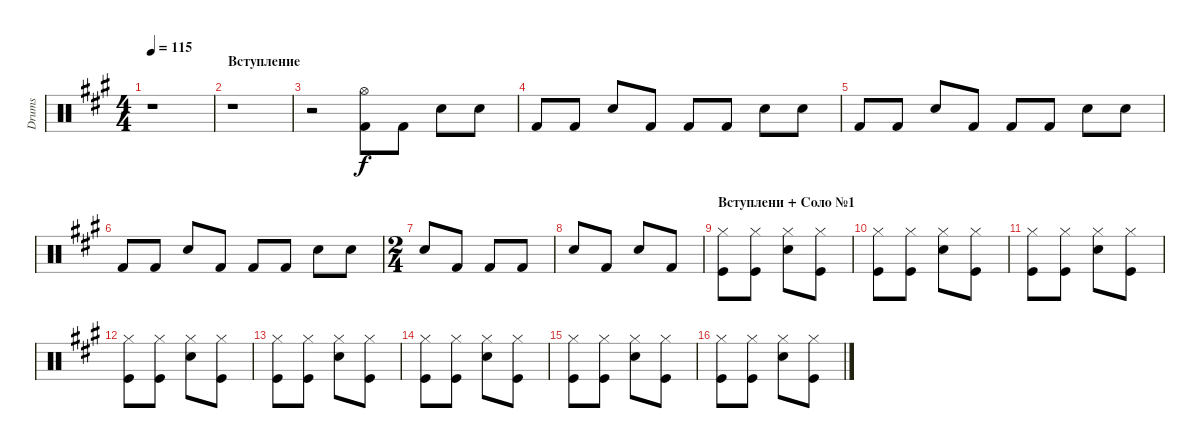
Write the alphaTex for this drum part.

\track ("Drums" "Drums") {instrument percussion}
\staff {score}
\articulation defaults
\ts (4 4)
\tempo 115
\clef neutral
\ks f#minor
r.1{dy f} |
\section ("" "Вступление")
r.1 |
r.2 ("Hi-Hat (open)" "Kick (hit) 2").8 "Kick (hit) 2".8 "Electric Snare (hit)".8 "Electric Snare (hit)".8 |
"Kick (hit) 2".8 "Kick (hit) 2".8 "Electric Snare (hit)".8 "Kick (hit) 2".8 "Kick (hit) 2".8 "Kick (hit) 2".8 "Electric Snare (hit)".8 "Electric Snare (hit)".8 |
"Kick (hit) 2".8 "Kick (hit) 2".8 "Electric Snare (hit)".8 "Kick (hit) 2".8 "Kick (hit) 2".8 "Kick (hit) 2".8 "Electric Snare (hit)".8 "Electric Snare (hit)".8 |
"Kick (hit) 2".8 "Kick (hit) 2".8 "Electric Snare (hit)".8 "Kick (hit) 2".8 "Kick (hit) 2".8 "Kick (hit) 2".8 "Electric Snare (hit)".8 "Electric Snare (hit)".8 |
\ts (2 4)
"Electric Snare (hit)".8 "Kick (hit) 2".8 "Kick (hit) 2".8 "Kick (hit) 2".8 |
"Electric Snare (hit)".8 "Kick (hit) 2".8 "Electric Snare (hit)".8 "Kick (hit) 2".8 |
\section ("" "Вступлени + Соло №1")
("Hi-Hat (closed)" "Kick (hit)").8 ("Hi-Hat (closed)" "Kick (hit)").8 ("Hi-Hat (closed)" "Electric Snare (hit)").8 ("Hi-Hat (closed)" "Kick (hit)").8 |
("Hi-Hat (closed)" "Kick (hit)").8 ("Hi-Hat (closed)" "Kick (hit)").8 ("Hi-Hat (closed)" "Electric Snare (hit)").8 ("Hi-Hat (closed)" "Kick (hit)").8 |
("Hi-Hat (closed)" "Kick (hit)").8 ("Hi-Hat (closed)" "Kick (hit)").8 ("Hi-Hat (closed)" "Electric Snare (hit)").8 ("Hi-Hat (closed)" "Kick (hit)").8 |
("Hi-Hat (closed)" "Kick (hit)").8 ("Hi-Hat (closed)" "Kick (hit)").8 ("Hi-Hat (closed)" "Electric Snare (hit)").8 ("Hi-Hat (closed)" "Kick (hit)").8 |
("Hi-Hat (closed)" "Kick (hit)").8 ("Hi-Hat (closed)" "Kick (hit)").8 ("Hi-Hat (closed)" "Electric Snare (hit)").8 ("Hi-Hat (closed)" "Kick (hit)").8 |
("Hi-Hat (closed)" "Kick (hit)").8 ("Hi-Hat (closed)" "Kick (hit)").8 ("Hi-Hat (closed)" "Electric Snare (hit)").8 ("Hi-Hat (closed)" "Kick (hit)").8 |
("Hi-Hat (closed)" "Kick (hit)").8 ("Hi-Hat (closed)" "Kick (hit)").8 ("Hi-Hat (closed)" "Electric Snare (hit)").8 ("Hi-Hat (closed)" "Kick (hit)").8 |
("Hi-Hat (closed)" "Kick (hit)").8 ("Hi-Hat (closed)" "Kick (hit)").8 ("Hi-Hat (closed)" "Electric Snare (hit)").8 ("Hi-Hat (closed)" "Kick (hit)").8
